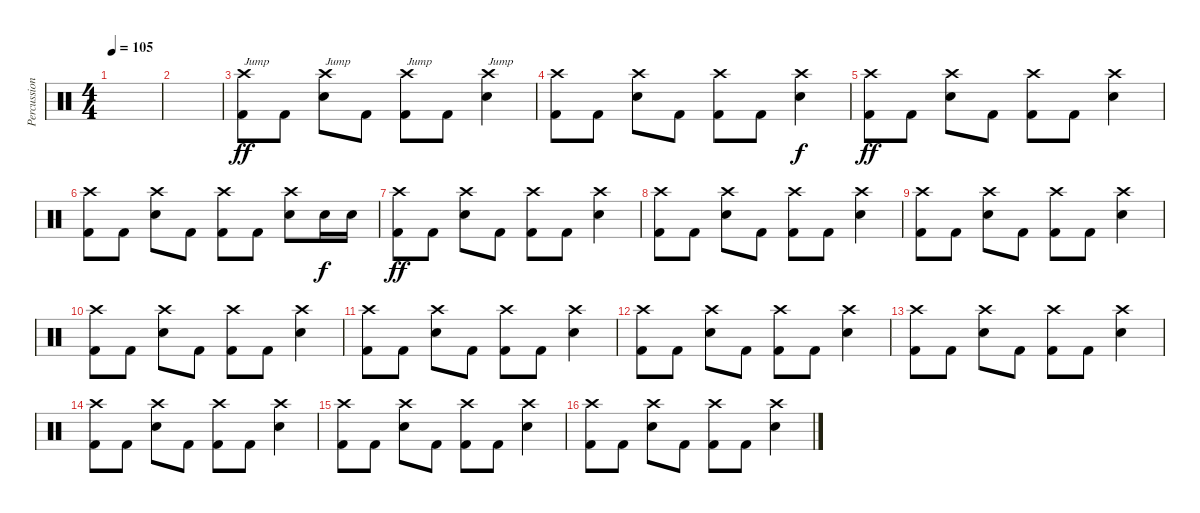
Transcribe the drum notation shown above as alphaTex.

\track ("Percussion" "Percussion") {instrument percussion}
\staff {score}
\articulation defaults
\ts (4 4)
\tempo 105
\clef neutral
\ks c
|
|
("Crash high (hit)" "Kick (hit) 2").8{txt "Jump" dy ff} "Kick (hit) 2".8 ("Crash high (hit)" "Electric Snare (hit)").8{txt "Jump"} "Kick (hit) 2".8 ("Crash high (hit)" "Kick (hit) 2").8{txt "Jump"} "Kick (hit) 2".8 ("Crash high (hit)" "Electric Snare (hit)").4{txt "Jump"} |
("Crash high (hit)" "Kick (hit) 2").8 "Kick (hit) 2".8 ("Crash high (hit)" "Electric Snare (hit)").8 "Kick (hit) 2".8 ("Crash high (hit)" "Kick (hit) 2").8 "Kick (hit) 2".8 ("Crash high (hit)" "Electric Snare (hit)").4{dy f} |
("Crash high (hit)" "Kick (hit) 2").8{dy ff} "Kick (hit) 2".8 ("Crash high (hit)" "Electric Snare (hit)").8 "Kick (hit) 2".8 ("Crash high (hit)" "Kick (hit) 2").8 "Kick (hit) 2".8 ("Crash high (hit)" "Electric Snare (hit)").4 |
("Crash high (hit)" "Kick (hit) 2").8 "Kick (hit) 2".8 ("Crash high (hit)" "Electric Snare (hit)").8 "Kick (hit) 2".8 ("Crash high (hit)" "Kick (hit) 2").8 "Kick (hit) 2".8 ("Crash high (hit)" "Electric Snare (hit)").8 "Electric Snare (hit)".16{dy f} "Electric Snare (hit)".16 |
("Crash high (hit)" "Kick (hit) 2").8{dy ff} "Kick (hit) 2".8 ("Crash high (hit)" "Electric Snare (hit)").8 "Kick (hit) 2".8 ("Crash high (hit)" "Kick (hit) 2").8 "Kick (hit) 2".8 ("Crash high (hit)" "Electric Snare (hit)").4 |
("Crash high (hit)" "Kick (hit) 2").8 "Kick (hit) 2".8 ("Crash high (hit)" "Electric Snare (hit)").8 "Kick (hit) 2".8 ("Crash high (hit)" "Kick (hit) 2").8 "Kick (hit) 2".8 ("Crash high (hit)" "Electric Snare (hit)").4 |
("Crash high (hit)" "Kick (hit) 2").8 "Kick (hit) 2".8 ("Crash high (hit)" "Electric Snare (hit)").8 "Kick (hit) 2".8 ("Crash high (hit)" "Kick (hit) 2").8 "Kick (hit) 2".8 ("Crash high (hit)" "Electric Snare (hit)").4 |
("Crash high (hit)" "Kick (hit) 2").8 "Kick (hit) 2".8 ("Crash high (hit)" "Electric Snare (hit)").8 "Kick (hit) 2".8 ("Crash high (hit)" "Kick (hit) 2").8 "Kick (hit) 2".8 ("Crash high (hit)" "Electric Snare (hit)").4 |
("Crash high (hit)" "Kick (hit) 2").8 "Kick (hit) 2".8 ("Crash high (hit)" "Electric Snare (hit)").8 "Kick (hit) 2".8 ("Crash high (hit)" "Kick (hit) 2").8 "Kick (hit) 2".8 ("Crash high (hit)" "Electric Snare (hit)").4 |
("Crash high (hit)" "Kick (hit) 2").8 "Kick (hit) 2".8 ("Crash high (hit)" "Electric Snare (hit)").8 "Kick (hit) 2".8 ("Crash high (hit)" "Kick (hit) 2").8 "Kick (hit) 2".8 ("Crash high (hit)" "Electric Snare (hit)").4 |
("Crash high (hit)" "Kick (hit) 2").8 "Kick (hit) 2".8 ("Crash high (hit)" "Electric Snare (hit)").8 "Kick (hit) 2".8 ("Crash high (hit)" "Kick (hit) 2").8 "Kick (hit) 2".8 ("Crash high (hit)" "Electric Snare (hit)").4 |
("Crash high (hit)" "Kick (hit) 2").8 "Kick (hit) 2".8 ("Crash high (hit)" "Electric Snare (hit)").8 "Kick (hit) 2".8 ("Crash high (hit)" "Kick (hit) 2").8 "Kick (hit) 2".8 ("Crash high (hit)" "Electric Snare (hit)").4 |
("Crash high (hit)" "Kick (hit) 2").8 "Kick (hit) 2".8 ("Crash high (hit)" "Electric Snare (hit)").8 "Kick (hit) 2".8 ("Crash high (hit)" "Kick (hit) 2").8 "Kick (hit) 2".8 ("Crash high (hit)" "Electric Snare (hit)").4 |
("Crash high (hit)" "Kick (hit) 2").8 "Kick (hit) 2".8 ("Crash high (hit)" "Electric Snare (hit)").8 "Kick (hit) 2".8 ("Crash high (hit)" "Kick (hit) 2").8 "Kick (hit) 2".8 ("Crash high (hit)" "Electric Snare (hit)").4
